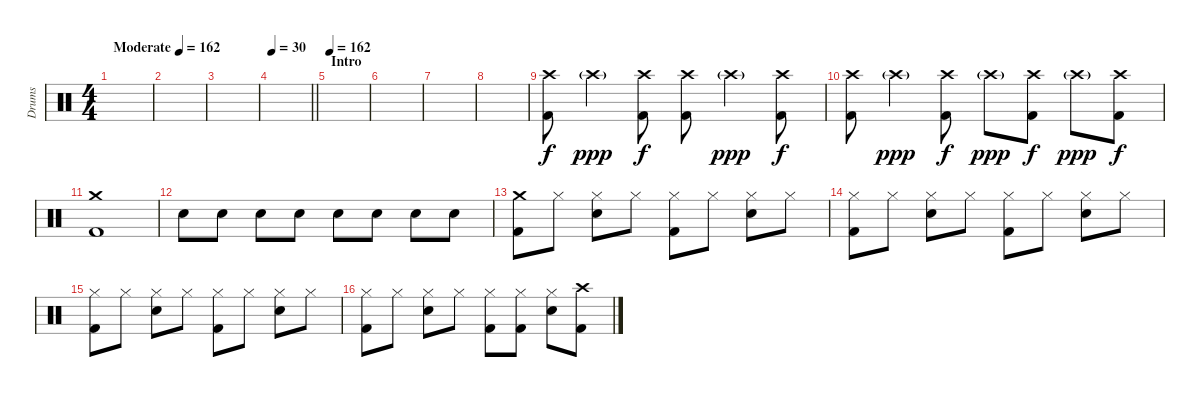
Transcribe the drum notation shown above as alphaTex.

\track ("Drums" "Drums") {instrument percussion}
\staff {score}
\articulation defaults
\ts (4 4)
\tempo (162 "Moderate")
\tempo 53
\tempo (162 "Moderate")
\clef neutral
\ks c
|
|
|
\tempo 30
\barLineRight lightlight
|
\section ("" "Intro")
\tempo 162
|
|
|
|
("Crash high (hit)" "Kick (hit) 2").8 "Crash high (hit)"{g}.4{dy ppp} ("Crash high (hit)" "Kick (hit) 2").8{dy f} ("Crash high (hit)" "Kick (hit) 2").8 "Crash high (hit)"{g}.4{dy ppp} ("Crash high (hit)" "Kick (hit) 2").8{dy f} |
("Crash high (hit)" "Kick (hit) 2").8 "Crash high (hit)"{g}.4{dy ppp} ("Crash high (hit)" "Kick (hit) 2").8{dy f} "Crash high (hit)"{g}.8{dy ppp} ("Crash high (hit)" "Kick (hit) 2").8{dy f} "Crash high (hit)"{g}.8{dy ppp} ("Crash high (hit)" "Kick (hit) 2").8{dy f} |
("Crash medium (hit)" "Kick (hit) 2").1 |
"Electric Snare (hit)".8 "Electric Snare (hit)".8 "Electric Snare (hit)".8 "Electric Snare (hit)".8 "Electric Snare (hit)".8 "Electric Snare (hit)".8 "Electric Snare (hit)".8 "Electric Snare (hit)".8 |
("Crash medium (hit)" "Kick (hit) 2").8 "Hi-Hat (closed)".8 ("Hi-Hat (closed)" "Electric Snare (hit)").8 "Hi-Hat (closed)".8 ("Hi-Hat (closed)" "Kick (hit) 2").8 "Hi-Hat (closed)".8 ("Hi-Hat (closed)" "Electric Snare (hit)").8 "Hi-Hat (closed)".8 |
("Hi-Hat (closed)" "Kick (hit) 2").8 "Hi-Hat (closed)".8 ("Hi-Hat (closed)" "Electric Snare (hit)").8 "Hi-Hat (closed)".8 ("Hi-Hat (closed)" "Kick (hit) 2").8 "Hi-Hat (closed)".8 ("Hi-Hat (closed)" "Electric Snare (hit)").8 "Hi-Hat (closed)".8 |
("Hi-Hat (closed)" "Kick (hit) 2").8 "Hi-Hat (closed)".8 ("Hi-Hat (closed)" "Electric Snare (hit)").8 "Hi-Hat (closed)".8 ("Hi-Hat (closed)" "Kick (hit) 2").8 "Hi-Hat (closed)".8 ("Hi-Hat (closed)" "Electric Snare (hit)").8 "Hi-Hat (closed)".8 |
("Hi-Hat (closed)" "Kick (hit) 2").8 "Hi-Hat (closed)".8 ("Hi-Hat (closed)" "Electric Snare (hit)").8 "Hi-Hat (closed)".8 ("Hi-Hat (closed)" "Kick (hit) 2").8 ("Hi-Hat (closed)" "Kick (hit) 2").8 ("Hi-Hat (closed)" "Electric Snare (hit)").8 ("Crash high (hit)" "Kick (hit) 2").8
